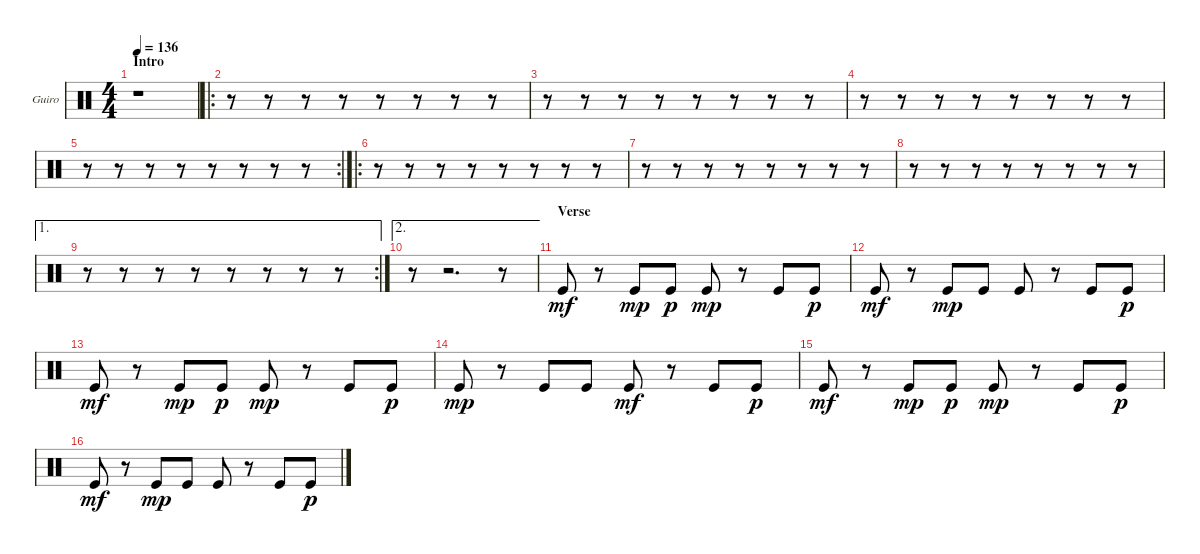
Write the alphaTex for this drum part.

\bracketExtendMode groupsimilarinstruments
\firstSystemTrackNameOrientation horizontal
\otherSystemsTrackNameOrientation horizontal
\track ("Guiro" "Guiro") {instrument percussion}
\staff {score}
\articulation defaults
\ts (4 4)
\section ("" "Intro")
\tempo 136
\clef neutral
\ks c
r.1{dy mf} |
\ro
r.8 r.8 r.8 r.8 r.8 r.8 r.8 r.8 |
r.8 r.8 r.8 r.8 r.8 r.8 r.8 r.8 |
r.8 r.8 r.8 r.8 r.8 r.8 r.8 r.8 |
\rc 2
r.8 r.8 r.8 r.8 r.8 r.8 r.8 r.8 |
\ro
r.8 r.8 r.8 r.8 r.8 r.8 r.8 r.8 |
r.8 r.8 r.8 r.8 r.8 r.8 r.8 r.8 |
r.8 r.8 r.8 r.8 r.8 r.8 r.8 r.8 |
\ae 1
\rc 2
r.8 r.8 r.8 r.8 r.8 r.8 r.8 r.8 |
\ae 2
r.8 r.2{d} r.8 |
\section ("" "Verse")
"Kick (hit)".8 r.8 "Kick (hit)".8{dy mp} "Kick (hit)".8{dy p} "Kick (hit)".8{dy mp} r.8 "Kick (hit)".8 "Kick (hit)".8{dy p} |
"Kick (hit)".8{dy mf} r.8 "Kick (hit)".8{dy mp} "Kick (hit)".8 "Kick (hit)".8 r.8 "Kick (hit)".8 "Kick (hit)".8{dy p} |
"Kick (hit)".8{dy mf} r.8 "Kick (hit)".8{dy mp} "Kick (hit)".8{dy p} "Kick (hit)".8{dy mp} r.8 "Kick (hit)".8 "Kick (hit)".8{dy p} |
"Kick (hit)".8{dy mp} r.8 "Kick (hit)".8 "Kick (hit)".8 "Kick (hit)".8{dy mf} r.8 "Kick (hit)".8 "Kick (hit)".8{dy p} |
"Kick (hit)".8{dy mf} r.8 "Kick (hit)".8{dy mp} "Kick (hit)".8{dy p} "Kick (hit)".8{dy mp} r.8 "Kick (hit)".8 "Kick (hit)".8{dy p} |
"Kick (hit)".8{dy mf} r.8 "Kick (hit)".8{dy mp} "Kick (hit)".8 "Kick (hit)".8 r.8 "Kick (hit)".8 "Kick (hit)".8{dy p}
